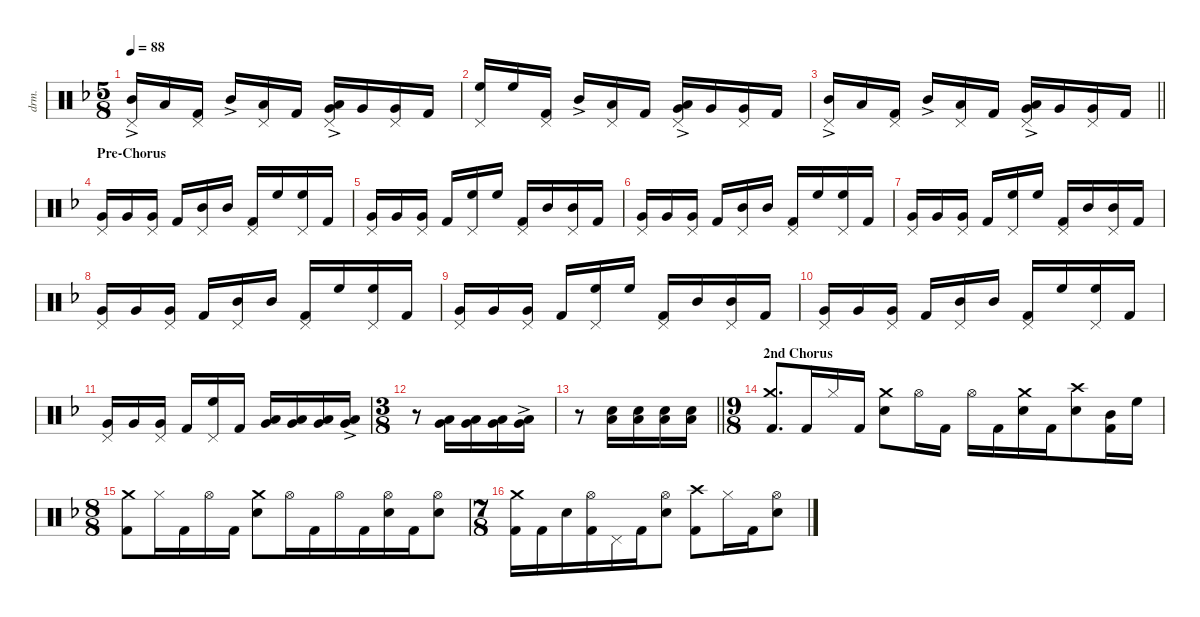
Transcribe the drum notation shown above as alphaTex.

\defaultSystemsLayout 4
\hideDynamics
\bracketExtendMode nobrackets
\otherSystemsTrackNameOrientation horizontal
\track ("Drums" "drm.") {instrument percussion}
\staff {score}
\articulation defaults
\ts (5 8)
\tempo 88
\clef neutral
\ks dminor
("Pedal Hi-Hat (hit)"{acc forcenatural} "Mid Tom (hit)"{ac acc forcenatural}).16{dy f beam Up} "Low Tom (hit)"{acc forcenatural}.16{beam Up beam merge} ("Pedal Hi-Hat (hit)"{acc forcenatural} "Kick (hit) 2"{acc forcenatural}).16{beam Up beam split} "Mid Tom (hit)"{ac acc forcenatural}.16{beam Up beam merge} ("Pedal Hi-Hat (hit)"{acc forcenatural} "Low Tom (hit)"{acc forcenatural}).16{beam Up} "Kick (hit) 2"{acc forcenatural}.16{beam Up beam split} ("Pedal Hi-Hat (hit)"{acc forcenatural} "Low Tom (hit)"{ac acc forcenatural} "Very Low Tom (hit)"{acc forcenatural}).16{beam Up} "Very Low Tom (hit)"{acc forcenatural}.16{beam Up beam merge} ("Pedal Hi-Hat (hit)"{acc forcenatural} "Very Low Tom (hit)"{acc forcenatural}).16{beam Up} "Kick (hit) 2"{acc forcenatural}.16{beam Up} |
("Pedal Hi-Hat (hit)"{acc forcenatural} "High Floor Tom (hit)"{acc forcenatural}).16{beam Up} "High Floor Tom (hit)"{acc forcenatural}.16{beam Up beam merge} ("Pedal Hi-Hat (hit)"{acc forcenatural} "Kick (hit) 2"{acc forcenatural}).16{beam Up beam split} "Mid Tom (hit)"{ac acc forcenatural}.16{beam Up beam merge} ("Pedal Hi-Hat (hit)"{acc forcenatural} "Low Tom (hit)"{acc forcenatural}).16{beam Up} "Kick (hit) 2"{acc forcenatural}.16{beam Up beam split} ("Pedal Hi-Hat (hit)"{acc forcenatural} "Low Tom (hit)"{ac acc forcenatural} "Very Low Tom (hit)"{acc forcenatural}).16{beam Up} "Very Low Tom (hit)"{acc forcenatural}.16{beam Up beam merge} ("Pedal Hi-Hat (hit)"{acc forcenatural} "Very Low Tom (hit)"{acc forcenatural}).16{beam Up} "Kick (hit) 2"{acc forcenatural}.16{beam Up} |
\barLineRight lightlight
("Pedal Hi-Hat (hit)"{acc forcenatural} "Mid Tom (hit)"{ac acc forcenatural}).16{beam Up} "Low Tom (hit)"{acc forcenatural}.16{beam Up beam merge} ("Pedal Hi-Hat (hit)"{acc forcenatural} "Kick (hit) 2"{acc forcenatural}).16{beam Up beam split} "Mid Tom (hit)"{ac acc forcenatural}.16{beam Up beam merge} ("Pedal Hi-Hat (hit)"{acc forcenatural} "Low Tom (hit)"{acc forcenatural}).16{beam Up} "Kick (hit) 2"{acc forcenatural}.16{beam Up beam split} ("Pedal Hi-Hat (hit)"{acc forcenatural} "Low Tom (hit)"{ac acc forcenatural} "Very Low Tom (hit)"{acc forcenatural}).16{beam Up} "Very Low Tom (hit)"{acc forcenatural}.16{beam Up beam merge} ("Pedal Hi-Hat (hit)"{acc forcenatural} "Very Low Tom (hit)"{acc forcenatural}).16{beam Up} "Kick (hit) 2"{acc forcenatural}.16{beam Up} |
\section ("" "Pre-Chorus")
("Pedal Hi-Hat (hit)"{acc forcenatural} "Very Low Tom (hit)"{acc forcenatural}).16{beam Up} "Very Low Tom (hit)"{acc forcenatural}.16{beam Up beam merge} ("Pedal Hi-Hat (hit)"{acc forcenatural} "Very Low Tom (hit)"{acc forcenatural}).16{beam Up beam split} "Kick (hit) 2"{acc forcenatural}.16{beam Up beam merge} ("Pedal Hi-Hat (hit)"{acc forcenatural} "Mid Tom (hit)"{acc forcenatural}).16{beam Up} "Mid Tom (hit)"{acc forcenatural}.16{beam Up beam split} ("Pedal Hi-Hat (hit)"{acc forcenatural} "Kick (hit) 2"{acc forcenatural}).16{beam Up} "High Floor Tom (hit)"{acc forcenatural}.16{beam Up beam merge} ("Pedal Hi-Hat (hit)"{acc forcenatural} "High Floor Tom (hit)"{acc forcenatural}).16{beam Up} "Kick (hit) 2"{acc forcenatural}.16{beam Up} |
("Pedal Hi-Hat (hit)"{acc forcenatural} "Very Low Tom (hit)"{acc forcenatural}).16{beam Up} "Very Low Tom (hit)"{acc forcenatural}.16{beam Up beam merge} ("Pedal Hi-Hat (hit)"{acc forcenatural} "Very Low Tom (hit)"{acc forcenatural}).16{beam Up beam split} "Kick (hit) 2"{acc forcenatural}.16{beam Up beam merge} ("Pedal Hi-Hat (hit)"{acc forcenatural} "High Floor Tom (hit)"{acc forcenatural}).16{beam Up} "High Floor Tom (hit)"{acc forcenatural}.16{beam Up beam split} ("Pedal Hi-Hat (hit)"{acc forcenatural} "Kick (hit) 2"{acc forcenatural}).16{beam Up beam merge} "Mid Tom (hit)"{acc forcenatural}.16{beam Up beam merge} ("Pedal Hi-Hat (hit)"{acc forcenatural} "Mid Tom (hit)"{acc forcenatural}).16{beam Up} "Kick (hit) 2"{acc forcenatural}.16{beam Up} |
("Pedal Hi-Hat (hit)"{acc forcenatural} "Very Low Tom (hit)"{acc forcenatural}).16{beam Up} "Very Low Tom (hit)"{acc forcenatural}.16{beam Up beam merge} ("Pedal Hi-Hat (hit)"{acc forcenatural} "Very Low Tom (hit)"{acc forcenatural}).16{beam Up beam split} "Kick (hit) 2"{acc forcenatural}.16{beam Up beam merge} ("Pedal Hi-Hat (hit)"{acc forcenatural} "Mid Tom (hit)"{acc forcenatural}).16{beam Up} "Mid Tom (hit)"{acc forcenatural}.16{beam Up beam split} ("Pedal Hi-Hat (hit)"{acc forcenatural} "Kick (hit) 2"{acc forcenatural}).16{beam Up} "High Floor Tom (hit)"{acc forcenatural}.16{beam Up beam merge} ("Pedal Hi-Hat (hit)"{acc forcenatural} "High Floor Tom (hit)"{acc forcenatural}).16{beam Up} "Kick (hit) 2"{acc forcenatural}.16{beam Up} |
("Pedal Hi-Hat (hit)"{acc forcenatural} "Very Low Tom (hit)"{acc forcenatural}).16{beam Up} "Very Low Tom (hit)"{acc forcenatural}.16{beam Up beam merge} ("Pedal Hi-Hat (hit)"{acc forcenatural} "Very Low Tom (hit)"{acc forcenatural}).16{beam Up beam split} "Kick (hit) 2"{acc forcenatural}.16{beam Up beam merge} ("Pedal Hi-Hat (hit)"{acc forcenatural} "High Floor Tom (hit)"{acc forcenatural}).16{beam Up} "High Floor Tom (hit)"{acc forcenatural}.16{beam Up beam split} ("Pedal Hi-Hat (hit)"{acc forcenatural} "Kick (hit) 2"{acc forcenatural}).16{beam Up beam merge} "Mid Tom (hit)"{acc forcenatural}.16{beam Up beam merge} ("Pedal Hi-Hat (hit)"{acc forcenatural} "Mid Tom (hit)"{acc forcenatural}).16{beam Up} "Kick (hit) 2"{acc forcenatural}.16{beam Up} |
("Pedal Hi-Hat (hit)"{acc forcenatural} "Very Low Tom (hit)"{acc forcenatural}).16{beam Up} "Very Low Tom (hit)"{acc forcenatural}.16{beam Up beam merge} ("Pedal Hi-Hat (hit)"{acc forcenatural} "Very Low Tom (hit)"{acc forcenatural}).16{beam Up beam split} "Kick (hit) 2"{acc forcenatural}.16{beam Up beam merge} ("Pedal Hi-Hat (hit)"{acc forcenatural} "Mid Tom (hit)"{acc forcenatural}).16{beam Up} "Mid Tom (hit)"{acc forcenatural}.16{beam Up beam split} ("Pedal Hi-Hat (hit)"{acc forcenatural} "Kick (hit) 2"{acc forcenatural}).16{beam Up} "High Floor Tom (hit)"{acc forcenatural}.16{beam Up beam merge} ("Pedal Hi-Hat (hit)"{acc forcenatural} "High Floor Tom (hit)"{acc forcenatural}).16{beam Up} "Kick (hit) 2"{acc forcenatural}.16{beam Up} |
("Pedal Hi-Hat (hit)"{acc forcenatural} "Very Low Tom (hit)"{acc forcenatural}).16{beam Up} "Very Low Tom (hit)"{acc forcenatural}.16{beam Up beam merge} ("Pedal Hi-Hat (hit)"{acc forcenatural} "Very Low Tom (hit)"{acc forcenatural}).16{beam Up beam split} "Kick (hit) 2"{acc forcenatural}.16{beam Up beam merge} ("Pedal Hi-Hat (hit)"{acc forcenatural} "High Floor Tom (hit)"{acc forcenatural}).16{beam Up} "High Floor Tom (hit)"{acc forcenatural}.16{beam Up beam split} ("Pedal Hi-Hat (hit)"{acc forcenatural} "Kick (hit) 2"{acc forcenatural}).16{beam Up beam merge} "Mid Tom (hit)"{acc forcenatural}.16{beam Up beam merge} ("Pedal Hi-Hat (hit)"{acc forcenatural} "Mid Tom (hit)"{acc forcenatural}).16{beam Up} "Kick (hit) 2"{acc forcenatural}.16{beam Up} |
("Pedal Hi-Hat (hit)"{acc forcenatural} "Very Low Tom (hit)"{acc forcenatural}).16{beam Up} "Very Low Tom (hit)"{acc forcenatural}.16{beam Up beam merge} ("Pedal Hi-Hat (hit)"{acc forcenatural} "Very Low Tom (hit)"{acc forcenatural}).16{beam Up beam split} "Kick (hit) 2"{acc forcenatural}.16{beam Up beam merge} ("Pedal Hi-Hat (hit)"{acc forcenatural} "Mid Tom (hit)"{acc forcenatural}).16{beam Up} "Mid Tom (hit)"{acc forcenatural}.16{beam Up beam split} ("Pedal Hi-Hat (hit)"{acc forcenatural} "Kick (hit) 2"{acc forcenatural}).16{beam Up} "High Floor Tom (hit)"{acc forcenatural}.16{beam Up beam merge} ("Pedal Hi-Hat (hit)"{acc forcenatural} "High Floor Tom (hit)"{acc forcenatural}).16{beam Up} "Kick (hit) 2"{acc forcenatural}.16{beam Up} |
("Pedal Hi-Hat (hit)"{acc forcenatural} "Very Low Tom (hit)"{acc forcenatural}).16{beam Up} "Very Low Tom (hit)"{acc forcenatural}.16{beam Up beam merge} ("Pedal Hi-Hat (hit)"{acc forcenatural} "Very Low Tom (hit)"{acc forcenatural}).16{beam Up beam split} "Kick (hit) 2"{acc forcenatural}.16{beam Up beam merge} ("Pedal Hi-Hat (hit)"{acc forcenatural} "High Floor Tom (hit)"{acc forcenatural}).16{beam Up} "Kick (hit) 2"{acc forcenatural}.16{beam Up} ("Low Tom (hit)"{acc forcenatural} "Very Low Tom (hit)"{acc forcenatural}).16{dy mp beam Up} ("Low Tom (hit)"{acc forcenatural} "Very Low Tom (hit)"{acc forcenatural}).16{dy mf beam Up beam merge} ("Low Tom (hit)"{acc forcenatural} "Very Low Tom (hit)"{acc forcenatural}).16{dy f beam Up} ("Low Tom (hit)"{ac acc forcenatural} "Very Low Tom (hit)"{ac acc forcenatural}).16{beam Up} |
\ts (3 8)
\beaming (8 3)
r.8{beam Down} ("Low Tom (hit)"{acc forcenatural} "Very Low Tom (hit)"{acc forcenatural}).16{dy mp beam Up} ("Low Tom (hit)"{acc forcenatural} "Very Low Tom (hit)"{acc forcenatural}).16{dy mf beam Up beam merge} ("Low Tom (hit)"{acc forcenatural} "Very Low Tom (hit)"{acc forcenatural}).16{dy f beam Up} ("Low Tom (hit)"{ac acc forcenatural} "Very Low Tom (hit)"{ac acc forcenatural}).16{beam Up} |
\barLineRight lightlight
r.8{beam Down} ("Low Tom (hit)"{acc forcenatural} "Snare (hit) 2"{acc forcenatural}).16{beam Down} ("Low Tom (hit)"{acc forcenatural} "Snare (hit) 2"{acc forcenatural}).16{beam Down beam merge} ("Low Tom (hit)"{acc forcenatural} "Snare (hit) 2"{acc forcenatural}).16{beam Down} ("Low Tom (hit)"{acc forcenatural} "Snare (hit) 2"{acc forcenatural}).16{beam Down} |
\ts (9 8)
\beaming (8 3 2 4)
\section ("" "2nd Chorus")
("Crash medium (hit)"{acc forcenatural} "Kick (hit) 2"{acc forcenatural}).8{d beam Up} "Kick (hit) 2"{acc forcenatural}.16{beam Up} "Hi-Hat (closed)"{acc forcenatural}.16{beam Up} "Kick (hit) 2"{acc forcenatural}.16{beam Up} ("Crash medium (hit)"{acc forcenatural} "Snare (hit) 2"{acc forcenatural}).8{beam Down} "Hi-Hat (open)"{acc forcenatural}.16{beam Down} "Kick (hit) 2"{acc forcenatural}.16{beam Down} "Hi-Hat (open)"{acc forcenatural}.16{beam Down} "Kick (hit) 2"{acc forcenatural}.16{beam Down} ("Crash medium (hit)"{acc forcenatural} "Snare (hit) 2"{acc forcenatural}).16{beam Down} "Kick (hit) 2"{acc forcenatural}.16{beam Down} ("Crash high (hit)"{acc forcenatural} "Snare (hit) 2"{acc forcenatural}).8{beam Down} ("Mid Tom (hit)"{acc forcenatural} "Kick (hit) 2"{acc forcenatural}).16{beam Down} "High Floor Tom (hit)"{acc forcenatural}.16{beam Down} |
\ts (8 8)
\beaming (8 3 2 3)
("Crash medium (hit)"{acc forcenatural} "Kick (hit) 2"{acc forcenatural}).8{beam Down beam merge} "Hi-Hat (closed)"{acc forcenatural}.16{beam Down} "Kick (hit) 2"{acc forcenatural}.16{beam Down beam merge} "Hi-Hat (open)"{acc forcenatural}.16{beam Down} "Kick (hit) 2"{acc forcenatural}.16{beam Down} ("Crash medium (hit)"{acc forcenatural} "Snare (hit) 2"{acc forcenatural}).8{beam Down beam merge} "Hi-Hat (open)"{acc forcenatural}.16{beam Down} "Kick (hit) 2"{acc forcenatural}.16{beam Down beam merge} "Hi-Hat (open)"{acc forcenatural}.16{beam Down} "Kick (hit) 2"{acc forcenatural}.16{beam Down} ("Hi-Hat (open)"{acc forcenatural} "Snare (hit) 2"{acc forcenatural}).16{beam Down} "Kick (hit) 2"{acc forcenatural}.16{beam Down beam merge} ("Hi-Hat (open)"{acc forcenatural} "Snare (hit) 2"{acc forcenatural}).8{beam Down} |
\ts (7 8)
\beaming (8 3 2 2)
("Crash medium (hit)"{acc forcenatural} "Kick (hit) 2"{acc forcenatural}).16{beam Down} "Kick (hit) 2"{acc forcenatural}.16{beam Down beam merge} "Snare (hit) 2"{acc forcenatural}.16{beam Down} ("Hi-Hat (open)"{acc forcenatural} "Kick (hit) 2"{acc forcenatural}).16{beam Down beam merge} "Pedal Hi-Hat (hit)"{acc forcenatural}.16{beam Down} "Kick (hit) 2"{acc forcenatural}.16{beam Down beam merge} ("Hi-Hat (open)"{acc forcenatural} "Snare (hit) 2"{acc forcenatural}).8{beam Down beam split} ("Crash high (hit)"{acc forcenatural} "Kick (hit) 2"{acc forcenatural}).8{beam Down beam merge} "Hi-Hat (closed)"{acc forcenatural}.16{beam Down} "Kick (hit) 2"{acc forcenatural}.16{beam Down beam merge} ("Hi-Hat (open)"{acc forcenatural} "Snare (hit) 2"{acc forcenatural}).8{beam Down}
